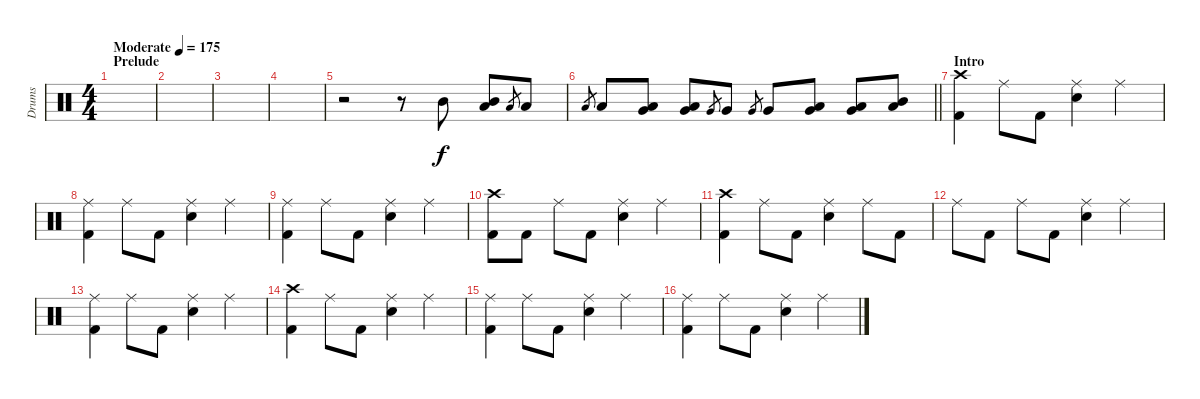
\track ("Drums" "Drums") {instrument percussion}
\staff {score}
\articulation defaults
\ts (4 4)
\section ("" "Prelude")
\tempo (175 "Moderate")
\clef neutral
\ks c
|
|
|
|
r.2 r.8 "Mid Tom (hit)".8 ("Mid Tom (hit)" "Low Tom (hit)").8 "Low Tom (hit)".8{gr} "Low Tom (hit)".8 |
\barLineRight lightlight "Low Tom (hit)".8{gr} "Low Tom (hit)".8
("Low Tom (hit)" "Very Low Tom (hit)").8 ("Low Tom (hit)" "Very Low Tom (hit)").8 "Very Low Tom (hit)".8{gr} "Very Low Tom (hit)".8 "Very Low Tom (hit)".8{gr} "Very Low Tom (hit)".8 ("Low Tom (hit)" "Very Low Tom (hit)").8 ("Low Tom (hit)" "Very Low Tom (hit)").8 ("Mid Tom (hit)" "Low Tom (hit)").8 |
\section ("" "Intro")
("Crash high (hit)" "Kick (hit) 2").4 "Ride (middle)".8 "Kick (hit) 2".8 ("Ride (middle)" "Snare (hit) 2").4 "Ride (middle)".4 |
("Ride (middle)" "Kick (hit) 2").4 "Ride (middle)".8 "Kick (hit) 2".8 ("Ride (middle)" "Snare (hit) 2").4 "Ride (middle)".4 |
("Ride (middle)" "Kick (hit) 2").4 "Ride (middle)".8 "Kick (hit) 2".8 ("Ride (middle)" "Snare (hit) 2").4 "Ride (middle)".4 |
("Crash high (hit)" "Kick (hit) 2").8 "Kick (hit) 2".8 "Ride (middle)".8 "Kick (hit) 2".8 ("Ride (middle)" "Snare (hit) 2").4 "Ride (middle)".4 |
("Crash high (hit)" "Kick (hit) 2").4 "Ride (middle)".8 "Kick (hit) 2".8 ("Ride (middle)" "Snare (hit) 2").4 "Ride (middle)".8 "Kick (hit) 2".8 |
"Ride (middle)".8 "Kick (hit) 2".8 "Ride (middle)".8 "Kick (hit) 2".8 ("Ride (middle)" "Snare (hit) 2").4 "Ride (middle)".4 |
("Ride (middle)" "Kick (hit) 2").4 "Ride (middle)".8 "Kick (hit) 2".8 ("Ride (middle)" "Snare (hit) 2").4 "Ride (middle)".4 |
("Crash high (hit)" "Kick (hit) 2").4 "Ride (middle)".8 "Kick (hit) 2".8 ("Ride (middle)" "Snare (hit) 2").4 "Ride (middle)".4 |
("Ride (middle)" "Kick (hit) 2").4 "Ride (middle)".8 "Kick (hit) 2".8 ("Ride (middle)" "Snare (hit) 2").4 "Ride (middle)".4 |
("Ride (middle)" "Kick (hit) 2").4 "Ride (middle)".8 "Kick (hit) 2".8 ("Ride (middle)" "Snare (hit) 2").4 "Ride (middle)".4
